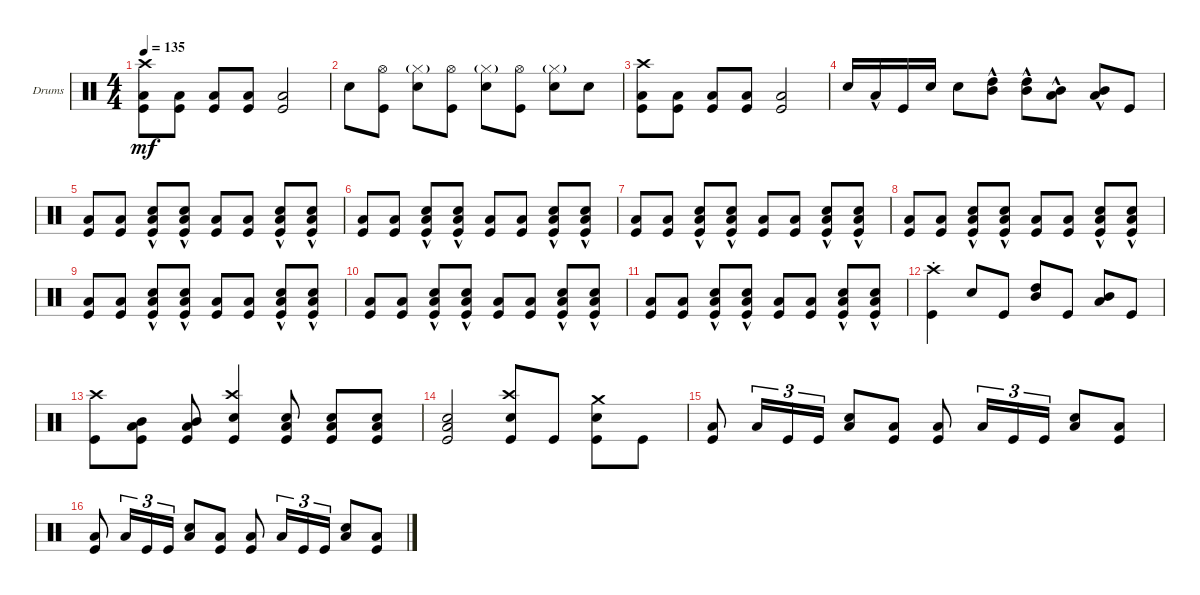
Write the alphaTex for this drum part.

\defaultSystemsLayout 4
\bracketExtendMode groupsimilarinstruments
\firstSystemTrackNameOrientation horizontal
\otherSystemsTrackNameOrientation horizontal
\track ("Drumkit" "Drums") {instrument percussion}
\staff {score}
\articulation defaults
\ts (4 4)
\tempo 135
\clef neutral
\ks c
("Kick (hit)" "Low Tom (hit)" "Crash high (hit)").8{dy mf} ("Kick (hit)" "Low Tom (hit)").8 ("Kick (hit)" "Low Tom (hit)").8 ("Kick (hit)" "Low Tom (hit)").8 ("Kick (hit)" "Low Tom (hit)").2 |
"Snare (hit) 2".8 ("Hi-Hat (open)" "Kick (hit)").8 ("Snare (hit) 2" "Hi-Hat (closed)"{g}).8 ("Hi-Hat (open)" "Kick (hit)").8 ("Snare (hit) 2" "Hi-Hat (closed)"{g}).8 ("Kick (hit)" "Hi-Hat (open)").8 ("Snare (hit) 2" "Hi-Hat (closed)"{g}).8 "Snare (hit) 2".8 |
("Kick (hit)" "Low Tom (hit)" "Crash high (hit)").8 ("Kick (hit)" "Low Tom (hit)").8 ("Kick (hit)" "Low Tom (hit)").8 ("Kick (hit)" "Low Tom (hit)").8 ("Kick (hit)" "Low Tom (hit)").2 |
"Snare (hit) 2".16 "Low Tom (hit)"{hac}.16 "Kick (hit)".16 "Snare (hit) 2".16 "Snare (hit) 2".8 ("Mid Tom (hit)"{hac} "High Tom (hit)"{hac}).8 ("Mid Tom (hit)"{hac} "High Tom (hit)"{hac}).8 ("Low Tom (hit)"{hac} "Mid Tom (hit)"{hac}).8 ("Low Tom (hit)"{hac} "Mid Tom (hit)"{hac}).8 "Kick (hit)".8 |
("Kick (hit)" "Low Tom (hit)").8 ("Kick (hit)" "Low Tom (hit)").8 ("Kick (hit)" "Snare (hit) 2"{hac} "Low Tom (hit)").8 ("Kick (hit)" "Snare (hit) 2"{hac} "Low Tom (hit)").8 ("Kick (hit)" "Low Tom (hit)").8 ("Kick (hit)" "Low Tom (hit)").8 ("Kick (hit)" "Snare (hit) 2"{hac} "Low Tom (hit)").8 ("Kick (hit)" "Snare (hit) 2"{hac} "Low Tom (hit)").8 |
("Kick (hit)" "Low Tom (hit)").8 ("Kick (hit)" "Low Tom (hit)").8 ("Kick (hit)" "Snare (hit) 2"{hac} "Low Tom (hit)").8 ("Kick (hit)" "Snare (hit) 2"{hac} "Low Tom (hit)").8 ("Kick (hit)" "Low Tom (hit)").8 ("Kick (hit)" "Low Tom (hit)").8 ("Kick (hit)" "Snare (hit) 2"{hac} "Low Tom (hit)").8 ("Kick (hit)" "Snare (hit) 2"{hac} "Low Tom (hit)").8 |
("Kick (hit)" "Low Tom (hit)").8 ("Kick (hit)" "Low Tom (hit)").8 ("Kick (hit)" "Snare (hit) 2"{hac} "Low Tom (hit)").8 ("Kick (hit)" "Snare (hit) 2"{hac} "Low Tom (hit)").8 ("Kick (hit)" "Low Tom (hit)").8 ("Kick (hit)" "Low Tom (hit)").8 ("Kick (hit)" "Snare (hit) 2"{hac} "Low Tom (hit)").8 ("Kick (hit)" "Snare (hit) 2"{hac} "Low Tom (hit)").8 |
("Kick (hit)" "Low Tom (hit)").8 ("Kick (hit)" "Low Tom (hit)").8 ("Kick (hit)" "Snare (hit) 2"{hac} "Low Tom (hit)").8 ("Kick (hit)" "Snare (hit) 2"{hac} "Low Tom (hit)").8 ("Kick (hit)" "Low Tom (hit)").8 ("Kick (hit)" "Low Tom (hit)").8 ("Kick (hit)" "Snare (hit) 2"{hac} "Low Tom (hit)").8 ("Kick (hit)" "Snare (hit) 2"{hac} "Low Tom (hit)").8 |
("Kick (hit)" "Low Tom (hit)").8 ("Kick (hit)" "Low Tom (hit)").8 ("Kick (hit)" "Snare (hit) 2"{hac} "Low Tom (hit)").8 ("Kick (hit)" "Snare (hit) 2"{hac} "Low Tom (hit)").8 ("Kick (hit)" "Low Tom (hit)").8 ("Kick (hit)" "Low Tom (hit)").8 ("Kick (hit)" "Snare (hit) 2"{hac} "Low Tom (hit)").8 ("Kick (hit)" "Snare (hit) 2"{hac} "Low Tom (hit)").8 |
("Kick (hit)" "Low Tom (hit)").8 ("Kick (hit)" "Low Tom (hit)").8 ("Kick (hit)" "Snare (hit) 2"{hac} "Low Tom (hit)").8 ("Kick (hit)" "Snare (hit) 2"{hac} "Low Tom (hit)").8 ("Kick (hit)" "Low Tom (hit)").8 ("Kick (hit)" "Low Tom (hit)").8 ("Kick (hit)" "Snare (hit) 2"{hac} "Low Tom (hit)").8 ("Kick (hit)" "Snare (hit) 2"{hac} "Low Tom (hit)").8 |
("Kick (hit)" "Low Tom (hit)").8 ("Kick (hit)" "Low Tom (hit)").8 ("Kick (hit)" "Snare (hit) 2"{hac} "Low Tom (hit)").8 ("Kick (hit)" "Snare (hit) 2"{hac} "Low Tom (hit)").8 ("Kick (hit)" "Low Tom (hit)").8 ("Kick (hit)" "Low Tom (hit)").8 ("Kick (hit)" "Snare (hit) 2"{hac} "Low Tom (hit)").8 ("Kick (hit)" "Snare (hit) 2"{hac} "Low Tom (hit)").8 |
("Kick (hit)" "Crash high (hit)"{st}).4 "Snare (hit) 2".8 "Kick (hit)".8 ("High Tom (hit)" "Mid Tom (hit)").8 "Kick (hit)".8 ("Mid Tom (hit)" "Low Tom (hit)").8 "Kick (hit)".8 |
("Kick (hit)" "Crash high (hit)").8 ("Mid Tom (hit)" "Low Tom (hit)" "Kick (hit)").8 ("Mid Tom (hit)" "Low Tom (hit)" "Kick (hit)").8 ("Kick (hit)" "Snare (hit) 2" "Crash high (hit)").4 ("Kick (hit)" "Low Tom (hit)" "Snare (hit) 2").8 ("Kick (hit)" "Snare (hit) 2" "Low Tom (hit)").8 ("Kick (hit)" "Low Tom (hit)" "Snare (hit) 2").8 |
("Kick (hit)" "Snare (hit) 2" "Low Tom (hit)").2 ("Snare (hit) 2" "Kick (hit)" "Crash high (hit)").8 "Kick (hit)".8 ("Snare (hit) 2" "Crash medium (hit)" "Kick (hit)").8 "Kick (hit)".8 |
("Kick (hit)" "Low Tom (hit)").8 "Low Tom (hit)".16{tu (3 2)} "Kick (hit)".16{tu (3 2)} "Kick (hit)".16{tu (3 2)} ("Low Tom (hit)" "Snare (hit) 2").8 ("Kick (hit)" "Low Tom (hit)").8 ("Kick (hit)" "Low Tom (hit)").8 "Low Tom (hit)".16{tu (3 2)} "Kick (hit)".16{tu (3 2)} "Kick (hit)".16{tu (3 2)} ("Snare (hit) 2" "Low Tom (hit)").8 ("Kick (hit)" "Low Tom (hit)").8 |
("Kick (hit)" "Low Tom (hit)").8 "Low Tom (hit)".16{tu (3 2)} "Kick (hit)".16{tu (3 2)} "Kick (hit)".16{tu (3 2)} ("Low Tom (hit)" "Snare (hit) 2").8 ("Kick (hit)" "Low Tom (hit)").8 ("Kick (hit)" "Low Tom (hit)").8 "Low Tom (hit)".16{tu (3 2)} "Kick (hit)".16{tu (3 2)} "Kick (hit)".16{tu (3 2)} ("Snare (hit) 2" "Low Tom (hit)").8 ("Kick (hit)" "Low Tom (hit)").8
